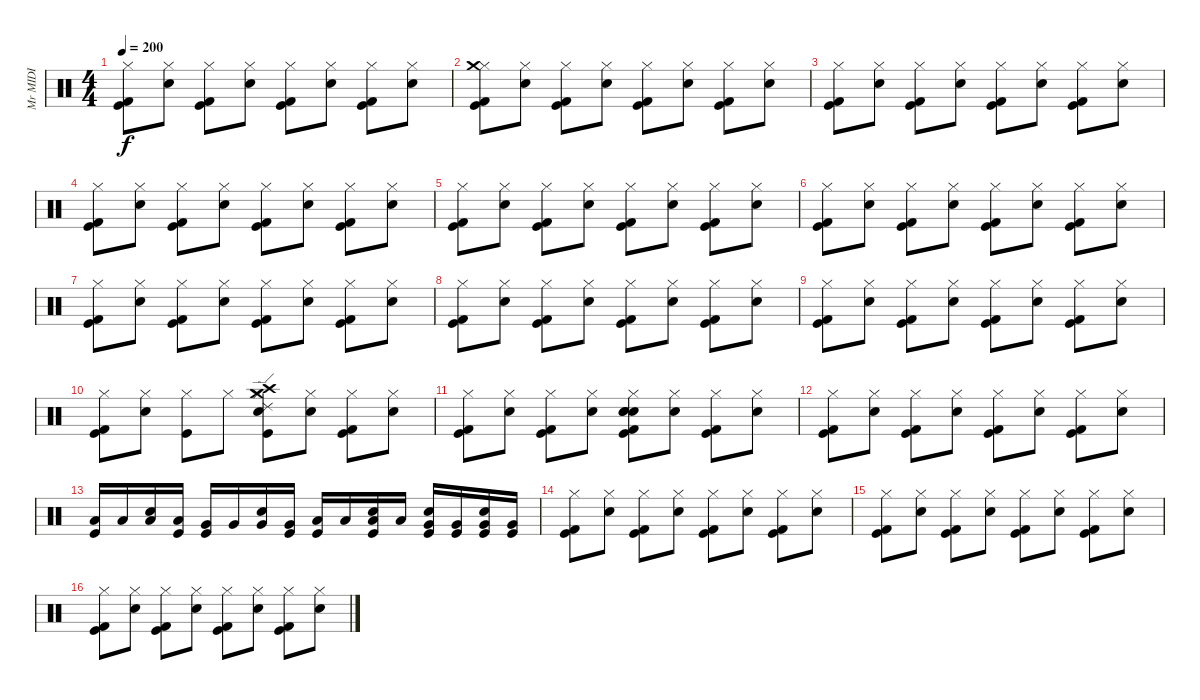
\track ("Mr MIDI" "Mr MIDI") {instrument percussion}
\staff {score}
\articulation defaults
\ts (4 4)
\tempo 200
\clef neutral
\ks c
("Hi-Hat (closed)" "Kick (hit) 2" "Kick (hit)").8{dy f} ("Hi-Hat (closed)" "Electric Snare (hit)").8 ("Hi-Hat (closed)" "Kick (hit) 2" "Kick (hit)").8 ("Hi-Hat (closed)" "Electric Snare (hit)").8 ("Hi-Hat (closed)" "Kick (hit) 2" "Kick (hit)").8 ("Hi-Hat (closed)" "Electric Snare (hit)").8 ("Hi-Hat (closed)" "Kick (hit) 2" "Kick (hit)").8 ("Hi-Hat (closed)" "Electric Snare (hit)").8 |
("Hi-Hat (closed)" "Kick (hit) 2" "Kick (hit)" "Crash medium (hit)").8 ("Hi-Hat (closed)" "Electric Snare (hit)").8 ("Hi-Hat (closed)" "Kick (hit) 2" "Kick (hit)").8 ("Hi-Hat (closed)" "Electric Snare (hit)").8 ("Hi-Hat (closed)" "Kick (hit) 2" "Kick (hit)").8 ("Hi-Hat (closed)" "Electric Snare (hit)").8 ("Hi-Hat (closed)" "Kick (hit) 2" "Kick (hit)").8 ("Hi-Hat (closed)" "Electric Snare (hit)").8 |
("Hi-Hat (closed)" "Kick (hit) 2" "Kick (hit)").8 ("Hi-Hat (closed)" "Electric Snare (hit)").8 ("Hi-Hat (closed)" "Kick (hit) 2" "Kick (hit)").8 ("Hi-Hat (closed)" "Electric Snare (hit)").8 ("Hi-Hat (closed)" "Kick (hit) 2" "Kick (hit)").8 ("Hi-Hat (closed)" "Electric Snare (hit)").8 ("Hi-Hat (closed)" "Kick (hit) 2" "Kick (hit)").8 ("Hi-Hat (closed)" "Electric Snare (hit)").8 |
("Hi-Hat (closed)" "Kick (hit) 2" "Kick (hit)").8 ("Hi-Hat (closed)" "Electric Snare (hit)").8 ("Hi-Hat (closed)" "Kick (hit) 2" "Kick (hit)").8 ("Hi-Hat (closed)" "Electric Snare (hit)").8 ("Hi-Hat (closed)" "Kick (hit) 2" "Kick (hit)").8 ("Hi-Hat (closed)" "Electric Snare (hit)").8 ("Hi-Hat (closed)" "Kick (hit) 2" "Kick (hit)").8 ("Hi-Hat (closed)" "Electric Snare (hit)").8 |
("Hi-Hat (closed)" "Kick (hit) 2" "Kick (hit)").8 ("Hi-Hat (closed)" "Electric Snare (hit)").8 ("Hi-Hat (closed)" "Kick (hit) 2" "Kick (hit)").8 ("Hi-Hat (closed)" "Electric Snare (hit)").8 ("Hi-Hat (closed)" "Kick (hit) 2" "Kick (hit)").8 ("Hi-Hat (closed)" "Electric Snare (hit)").8 ("Hi-Hat (closed)" "Kick (hit) 2" "Kick (hit)").8 ("Hi-Hat (closed)" "Electric Snare (hit)").8 |
("Hi-Hat (closed)" "Kick (hit) 2" "Kick (hit)").8 ("Hi-Hat (closed)" "Electric Snare (hit)").8 ("Hi-Hat (closed)" "Kick (hit) 2" "Kick (hit)").8 ("Hi-Hat (closed)" "Electric Snare (hit)").8 ("Hi-Hat (closed)" "Kick (hit) 2" "Kick (hit)").8 ("Hi-Hat (closed)" "Electric Snare (hit)").8 ("Hi-Hat (closed)" "Kick (hit) 2" "Kick (hit)").8 ("Hi-Hat (closed)" "Electric Snare (hit)").8 |
("Hi-Hat (closed)" "Kick (hit) 2" "Kick (hit)").8 ("Hi-Hat (closed)" "Electric Snare (hit)").8 ("Hi-Hat (closed)" "Kick (hit) 2" "Kick (hit)").8 ("Hi-Hat (closed)" "Electric Snare (hit)").8 ("Hi-Hat (closed)" "Kick (hit) 2" "Kick (hit)").8 ("Hi-Hat (closed)" "Electric Snare (hit)").8 ("Hi-Hat (closed)" "Kick (hit) 2" "Kick (hit)").8 ("Hi-Hat (closed)" "Electric Snare (hit)").8 |
("Hi-Hat (closed)" "Kick (hit) 2" "Kick (hit)").8 ("Hi-Hat (closed)" "Electric Snare (hit)").8 ("Hi-Hat (closed)" "Kick (hit) 2" "Kick (hit)").8 ("Hi-Hat (closed)" "Electric Snare (hit)").8 ("Hi-Hat (closed)" "Kick (hit) 2" "Kick (hit)").8 ("Hi-Hat (closed)" "Electric Snare (hit)").8 ("Hi-Hat (closed)" "Kick (hit) 2" "Kick (hit)").8 ("Hi-Hat (closed)" "Electric Snare (hit)").8 |
("Hi-Hat (closed)" "Kick (hit) 2" "Kick (hit)").8 ("Hi-Hat (closed)" "Electric Snare (hit)").8 ("Hi-Hat (closed)" "Kick (hit) 2" "Kick (hit)").8 ("Hi-Hat (closed)" "Electric Snare (hit)").8 ("Hi-Hat (closed)" "Kick (hit) 2" "Kick (hit)").8 ("Hi-Hat (closed)" "Electric Snare (hit)").8 ("Hi-Hat (closed)" "Kick (hit) 2" "Kick (hit)").8 ("Hi-Hat (closed)" "Electric Snare (hit)").8 |
("Hi-Hat (closed)" "Kick (hit) 2" "Kick (hit)").8 ("Hi-Hat (closed)" "Electric Snare (hit)").8 ("Hi-Hat (closed)" "Kick (hit)").8 "Hi-Hat (closed)".8 ("Hi-Hat (closed)" "Electric Snare (hit)" "Kick (hit)" "Crash high (hit)" "Crash medium (hit)" "Ride (edge) 2").8 ("Hi-Hat (closed)" "Electric Snare (hit)").8 ("Hi-Hat (closed)" "Kick (hit) 2" "Kick (hit)").8 ("Hi-Hat (closed)" "Electric Snare (hit)").8 |
("Hi-Hat (closed)" "Kick (hit) 2" "Kick (hit)").8 ("Hi-Hat (closed)" "Electric Snare (hit)").8 ("Hi-Hat (closed)" "Kick (hit) 2" "Kick (hit)").8 ("Hi-Hat (closed)" "Electric Snare (hit)").8 ("Hi-Hat (closed)" "Kick (hit) 2" "Kick (hit)" "Electric Snare (hit)" "Snare (hit) 2" "Hand Clap (hit)").8 ("Hi-Hat (closed)" "Electric Snare (hit)").8 ("Hi-Hat (closed)" "Kick (hit) 2" "Kick (hit)").8 ("Hi-Hat (closed)" "Electric Snare (hit)").8 |
("Hi-Hat (closed)" "Kick (hit) 2" "Kick (hit)").8 ("Hi-Hat (closed)" "Electric Snare (hit)").8 ("Hi-Hat (closed)" "Kick (hit) 2" "Kick (hit)").8 ("Hi-Hat (closed)" "Electric Snare (hit)").8 ("Hi-Hat (closed)" "Kick (hit) 2" "Kick (hit)").8 ("Hi-Hat (closed)" "Electric Snare (hit)").8 ("Hi-Hat (closed)" "Kick (hit) 2" "Kick (hit)").8 ("Hi-Hat (closed)" "Electric Snare (hit)").8 |
("Low Tom (hit)" "Kick (hit)").16 "Low Tom (hit)".16 ("Low Tom (hit)" "Electric Snare (hit)").16 ("Low Tom (hit)" "Kick (hit)").16 ("Very Low Tom (hit)" "Kick (hit)").16 "Very Low Tom (hit)".16 ("Very Low Tom (hit)" "Electric Snare (hit)").16 ("Very Low Tom (hit)" "Kick (hit)").16 ("Low Tom (hit)" "Kick (hit)").16 "Low Tom (hit)".16 ("Low Tom (hit)" "Kick (hit)" "Electric Snare (hit)").16 "Low Tom (hit)".16 ("Very Low Tom (hit)" "Kick (hit)" "Electric Snare (hit)").16 ("Very Low Tom (hit)" "Kick (hit)").16 ("Very Low Tom (hit)" "Kick (hit)" "Electric Snare (hit)").16 ("Very Low Tom (hit)" "Kick (hit)").16 |
("Hi-Hat (closed)" "Kick (hit) 2" "Kick (hit)").8 ("Hi-Hat (closed)" "Electric Snare (hit)").8 ("Hi-Hat (closed)" "Kick (hit) 2" "Kick (hit)").8 ("Hi-Hat (closed)" "Electric Snare (hit)").8 ("Hi-Hat (closed)" "Kick (hit) 2" "Kick (hit)").8 ("Hi-Hat (closed)" "Electric Snare (hit)").8 ("Hi-Hat (closed)" "Kick (hit) 2" "Kick (hit)").8 ("Hi-Hat (closed)" "Electric Snare (hit)").8 |
("Hi-Hat (closed)" "Kick (hit) 2" "Kick (hit)").8 ("Hi-Hat (closed)" "Electric Snare (hit)").8 ("Hi-Hat (closed)" "Kick (hit) 2" "Kick (hit)").8 ("Hi-Hat (closed)" "Electric Snare (hit)").8 ("Hi-Hat (closed)" "Kick (hit) 2" "Kick (hit)").8 ("Hi-Hat (closed)" "Electric Snare (hit)").8 ("Hi-Hat (closed)" "Kick (hit) 2" "Kick (hit)").8 ("Hi-Hat (closed)" "Electric Snare (hit)").8 |
("Hi-Hat (closed)" "Kick (hit) 2" "Kick (hit)").8 ("Hi-Hat (closed)" "Electric Snare (hit)").8 ("Hi-Hat (closed)" "Kick (hit) 2" "Kick (hit)").8 ("Hi-Hat (closed)" "Electric Snare (hit)").8 ("Hi-Hat (closed)" "Kick (hit) 2" "Kick (hit)").8 ("Hi-Hat (closed)" "Electric Snare (hit)").8 ("Hi-Hat (closed)" "Kick (hit) 2" "Kick (hit)").8 ("Hi-Hat (closed)" "Electric Snare (hit)").8
